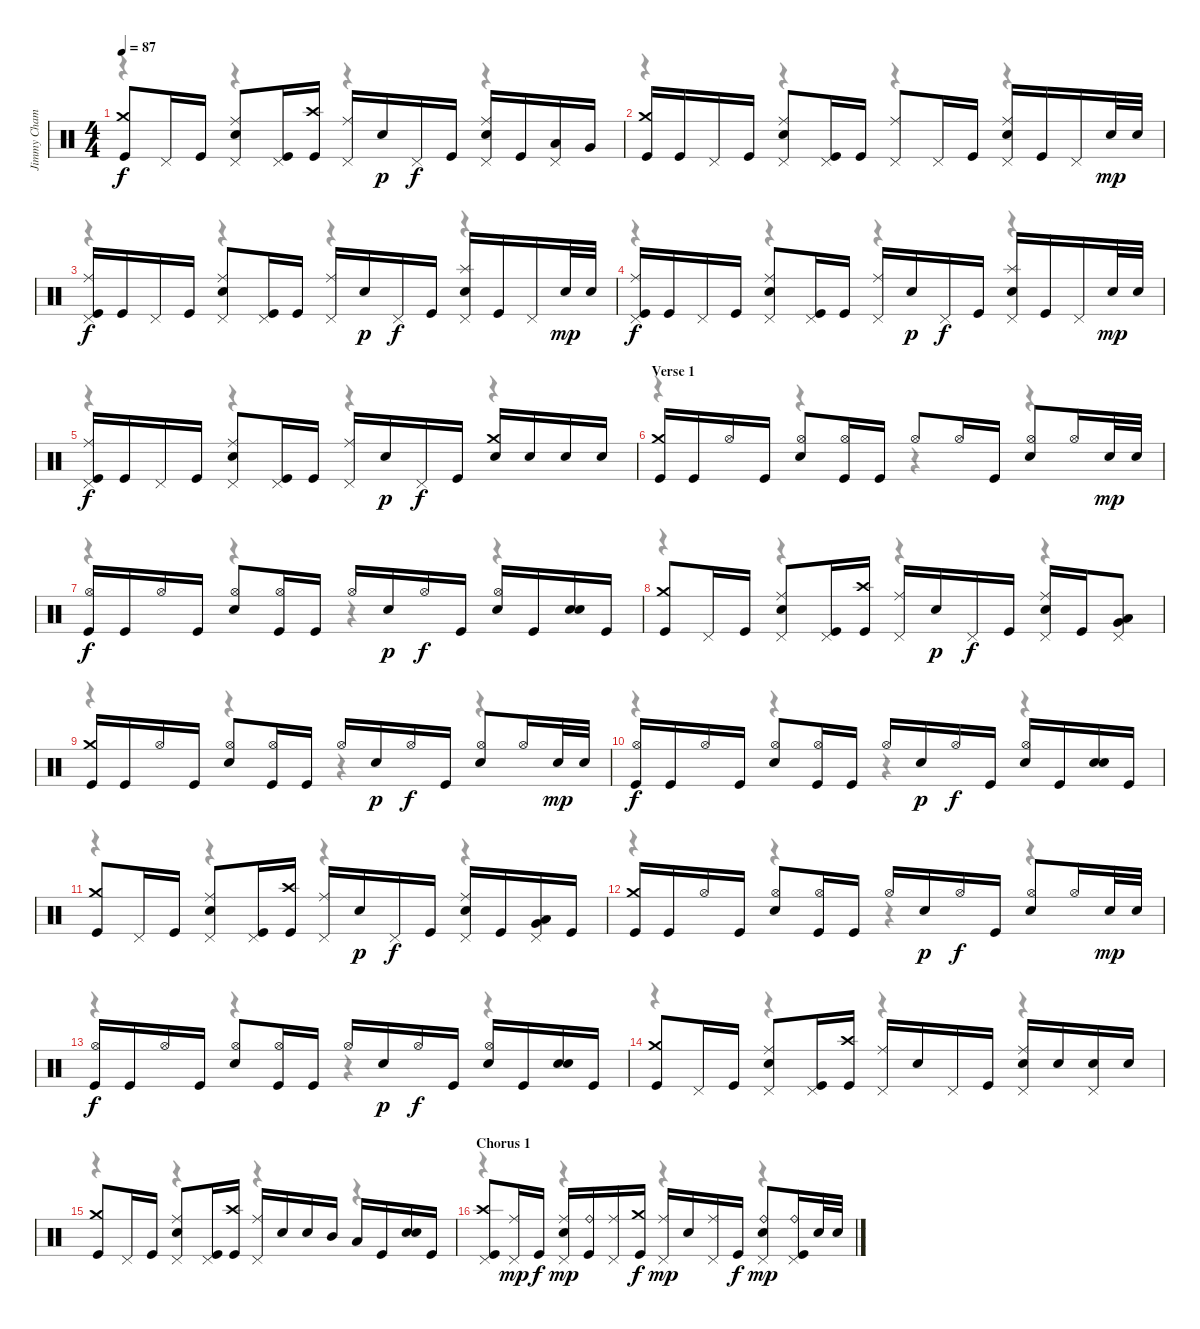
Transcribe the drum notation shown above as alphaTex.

\track ("Jimmy Chamberlin - Drums" "Jimmy Cham") {instrument percussion}
\staff {score}
\articulation defaults
\voice
\ts (4 4)
\tempo 87
\clef neutral
\ks c
("Crash medium (hit)" "Kick (hit)").8{dy f} "Pedal Hi-Hat (hit)".16 "Kick (hit)".16 ("Ride (middle)" "Pedal Hi-Hat (hit)" "Snare (hit) 2").8 ("Pedal Hi-Hat (hit)" "Kick (hit)").16 ("Crash high (hit)" "Kick (hit)").16 ("Ride (middle)" "Pedal Hi-Hat (hit)").16 "Snare (hit) 2".16{dy p} "Pedal Hi-Hat (hit)".16{dy f} "Kick (hit)".16 ("Ride (middle)" "Pedal Hi-Hat (hit)" "Snare (hit) 2").16 "Kick (hit)".16 ("Pedal Hi-Hat (hit)" "Low Tom (hit)").16 "Very Low Tom (hit)".16 |
("Crash medium (hit)" "Kick (hit)").16 "Kick (hit)".16 "Pedal Hi-Hat (hit)".16 "Kick (hit)".16 ("Ride (middle)" "Pedal Hi-Hat (hit)" "Snare (hit) 2").8 ("Pedal Hi-Hat (hit)" "Kick (hit)").16 "Kick (hit)".16 ("Ride (middle)" "Pedal Hi-Hat (hit)").8 "Pedal Hi-Hat (hit)".16 "Kick (hit)".16 ("Ride (middle)" "Pedal Hi-Hat (hit)" "Snare (hit) 2").16 "Kick (hit)".16 "Pedal Hi-Hat (hit)".16 "Snare (hit) 2".32{dy mp} "Snare (hit) 2".32 |
("Ride (middle)" "Pedal Hi-Hat (hit)" "Kick (hit)").16{dy f} "Kick (hit)".16 "Pedal Hi-Hat (hit)".16 "Kick (hit)".16 ("Ride (middle)" "Pedal Hi-Hat (hit)" "Snare (hit) 2").8 ("Pedal Hi-Hat (hit)" "Kick (hit)").16 "Kick (hit)".16 ("Ride (middle)" "Pedal Hi-Hat (hit)").16 "Snare (hit) 2".16{dy p} "Pedal Hi-Hat (hit)".16{dy f} "Kick (hit)".16 ("Splash (hit)" "Pedal Hi-Hat (hit)" "Snare (hit) 2").16 "Kick (hit)".16 "Pedal Hi-Hat (hit)".16 "Snare (hit) 2".32{dy mp} "Snare (hit) 2".32 |
("Ride (middle)" "Pedal Hi-Hat (hit)" "Kick (hit)").16{dy f} "Kick (hit)".16 "Pedal Hi-Hat (hit)".16 "Kick (hit)".16 ("Ride (middle)" "Pedal Hi-Hat (hit)" "Snare (hit) 2").8 ("Pedal Hi-Hat (hit)" "Kick (hit)").16 "Kick (hit)".16 ("Ride (middle)" "Pedal Hi-Hat (hit)").16 "Snare (hit) 2".16{dy p} "Pedal Hi-Hat (hit)".16{dy f} "Kick (hit)".16 ("Splash (hit)" "Pedal Hi-Hat (hit)" "Snare (hit) 2").16 "Kick (hit)".16 "Pedal Hi-Hat (hit)".16 "Snare (hit) 2".32{dy mp} "Snare (hit) 2".32 |
("Ride (middle)" "Pedal Hi-Hat (hit)" "Kick (hit)").16{dy f} "Kick (hit)".16 "Pedal Hi-Hat (hit)".16 "Kick (hit)".16 ("Ride (middle)" "Pedal Hi-Hat (hit)" "Snare (hit) 2").8 ("Pedal Hi-Hat (hit)" "Kick (hit)").16 "Kick (hit)".16 ("Ride (middle)" "Pedal Hi-Hat (hit)").16 "Snare (hit) 2".16{dy p} "Pedal Hi-Hat (hit)".16{dy f} "Kick (hit)".16 ("Crash medium (hit)" "Snare (hit) 2").16 "Snare (hit) 2".16 "Snare (hit) 2".16 "Snare (hit) 2".16 |
\section ("" "Verse 1")
("Crash medium (hit)" "Kick (hit)").16 "Kick (hit)".16 "Hi-Hat (open)".16 "Kick (hit)".16 ("Hi-Hat (open)" "Snare (hit) 2").8 ("Hi-Hat (open)" "Kick (hit)").16 "Kick (hit)".16 "Hi-Hat (open)".8 "Hi-Hat (open)".16 "Kick (hit)".16 ("Hi-Hat (open)" "Snare (hit) 2").8 "Hi-Hat (open)".16 "Snare (hit) 2".32{dy mp} "Snare (hit) 2".32 |
("Hi-Hat (open)" "Kick (hit)").16{dy f} "Kick (hit)".16 "Hi-Hat (open)".16 "Kick (hit)".16 ("Hi-Hat (open)" "Snare (hit) 2").8 ("Hi-Hat (open)" "Kick (hit)").16 "Kick (hit)".16 "Hi-Hat (open)".16 "Snare (hit) 2".16{dy p} "Hi-Hat (open)".16{dy f} "Kick (hit)".16 ("Hi-Hat (open)" "Snare (hit) 2").16 "Kick (hit)".16 ("Snare (hit) 2" "Snare (hit) 2").16 "Kick (hit)".16 |
("Crash medium (hit)" "Kick (hit)").8 "Pedal Hi-Hat (hit)".16 "Kick (hit)".16 ("Ride (middle)" "Pedal Hi-Hat (hit)" "Snare (hit) 2").8 ("Pedal Hi-Hat (hit)" "Kick (hit)").16 ("Crash high (hit)" "Kick (hit)").16 ("Ride (middle)" "Pedal Hi-Hat (hit)").16 "Snare (hit) 2".16{dy p} "Pedal Hi-Hat (hit)".16{dy f} "Kick (hit)".16 ("Ride (middle)" "Pedal Hi-Hat (hit)" "Snare (hit) 2").16 "Kick (hit)".16 ("Pedal Hi-Hat (hit)" "Low Tom (hit)" "Very Low Tom (hit)").8 |
("Crash medium (hit)" "Kick (hit)").16 "Kick (hit)".16 "Hi-Hat (open)".16 "Kick (hit)".16 ("Hi-Hat (open)" "Snare (hit) 2").8 ("Hi-Hat (open)" "Kick (hit)").16 "Kick (hit)".16 "Hi-Hat (open)".16 "Snare (hit) 2".16{dy p} "Hi-Hat (open)".16{dy f} "Kick (hit)".16 ("Hi-Hat (open)" "Snare (hit) 2").8 "Hi-Hat (open)".16 "Snare (hit) 2".32{dy mp} "Snare (hit) 2".32 |
("Hi-Hat (open)" "Kick (hit)").16{dy f} "Kick (hit)".16 "Hi-Hat (open)".16 "Kick (hit)".16 ("Hi-Hat (open)" "Snare (hit) 2").8 ("Hi-Hat (open)" "Kick (hit)").16 "Kick (hit)".16 "Hi-Hat (open)".16 "Snare (hit) 2".16{dy p} "Hi-Hat (open)".16{dy f} "Kick (hit)".16 ("Hi-Hat (open)" "Snare (hit) 2").16 "Kick (hit)".16 ("Snare (hit) 2" "Snare (hit) 2").16 "Kick (hit)".16 |
("Crash medium (hit)" "Kick (hit)").8 "Pedal Hi-Hat (hit)".16 "Kick (hit)".16 ("Ride (middle)" "Pedal Hi-Hat (hit)" "Snare (hit) 2").8 ("Pedal Hi-Hat (hit)" "Kick (hit)").16 ("Crash high (hit)" "Kick (hit)").16 ("Ride (middle)" "Pedal Hi-Hat (hit)").16 "Snare (hit) 2".16{dy p} "Pedal Hi-Hat (hit)".16{dy f} "Kick (hit)".16 ("Ride (middle)" "Pedal Hi-Hat (hit)" "Snare (hit) 2").16 "Kick (hit)".16 ("Pedal Hi-Hat (hit)" "Low Tom (hit)" "Very Low Tom (hit)").16 "Kick (hit)".16 |
("Crash medium (hit)" "Kick (hit)").16 "Kick (hit)".16 "Hi-Hat (open)".16 "Kick (hit)".16 ("Hi-Hat (open)" "Snare (hit) 2").8 ("Hi-Hat (open)" "Kick (hit)").16 "Kick (hit)".16 "Hi-Hat (open)".16 "Snare (hit) 2".16{dy p} "Hi-Hat (open)".16{dy f} "Kick (hit)".16 ("Hi-Hat (open)" "Snare (hit) 2").8 "Hi-Hat (open)".16 "Snare (hit) 2".32{dy mp} "Snare (hit) 2".32 |
("Hi-Hat (open)" "Kick (hit)").16{dy f} "Kick (hit)".16 "Hi-Hat (open)".16 "Kick (hit)".16 ("Hi-Hat (open)" "Snare (hit) 2").8 ("Hi-Hat (open)" "Kick (hit)").16 "Kick (hit)".16 "Hi-Hat (open)".16 "Snare (hit) 2".16{dy p} "Hi-Hat (open)".16{dy f} "Kick (hit)".16 ("Hi-Hat (open)" "Snare (hit) 2").16 "Kick (hit)".16 ("Snare (hit) 2" "Snare (hit) 2").16 "Kick (hit)".16 |
("Crash medium (hit)" "Kick (hit)").8 "Pedal Hi-Hat (hit)".16 "Kick (hit)".16 ("Ride (middle)" "Pedal Hi-Hat (hit)" "Snare (hit) 2").8 ("Pedal Hi-Hat (hit)" "Kick (hit)").16 ("Crash high (hit)" "Kick (hit)").16 ("Ride (middle)" "Pedal Hi-Hat (hit)").16 "Snare (hit) 2".16 "Pedal Hi-Hat (hit)".16 "Kick (hit)".16 ("Ride (middle)" "Pedal Hi-Hat (hit)" "Snare (hit) 2").16 "Snare (hit) 2".16 ("Pedal Hi-Hat (hit)" "Snare (hit) 2").16 "Snare (hit) 2".16 |
("Crash medium (hit)" "Kick (hit)").8 "Pedal Hi-Hat (hit)".16 "Kick (hit)".16 ("Ride (middle)" "Pedal Hi-Hat (hit)" "Snare (hit) 2").8 ("Pedal Hi-Hat (hit)" "Kick (hit)").16 ("Crash high (hit)" "Kick (hit)").16 ("Ride (middle)" "Pedal Hi-Hat (hit)").16 "Snare (hit) 2".16 "Snare (hit) 2".16 "Mid Tom (hit)".16 "Low Tom (hit)".16 "Kick (hit)".16 ("Snare (hit) 2" "Snare (hit) 2").16 "Kick (hit)".16 |
\section ("" "Chorus 1")
("Crash high (hit)" "Pedal Hi-Hat (hit)" "Kick (hit)").8 ("Ride (middle)" "Pedal Hi-Hat (hit)").16{dy mp} "Kick (hit)".16{dy f} ("Ride (middle)" "Pedal Hi-Hat (hit)" "Snare (hit) 2").16{dy mp} ("Ride (bell)" "Kick (hit)").16 ("Ride (middle)" "Pedal Hi-Hat (hit)").16 ("Crash medium (hit)" "Kick (hit)").16{dy f} ("Ride (middle)" "Pedal Hi-Hat (hit)").16{dy mp} "Snare (hit) 2".16 ("Ride (middle)" "Pedal Hi-Hat (hit)").16 "Kick (hit)".16{dy f} ("Ride (bell)" "Pedal Hi-Hat (hit)" "Snare (hit) 2").8{dy mp} ("Ride (bell)" "Pedal Hi-Hat (hit)" "Kick (hit)").16 "Snare (hit) 2".32 "Snare (hit) 2".32
\voice
\clef neutral
\ottava regular
\simile none
\ks c
r.4{dy f} r.4 r.4 r.4 |
r.4 r.4 r.4 r.4 |
r.4 r.4 r.4 r.4 |
r.4 r.4 r.4 r.4 |
r.4 r.4 r.4 r.4 |
r.4 r.4 r.4 r.4 |
r.4 r.4 r.4 r.4 |
r.4 r.4 r.4 r.4 |
r.4 r.4 r.4 r.4 |
r.4 r.4 r.4 r.4 |
r.4 r.4 r.4 r.4 |
r.4 r.4 r.4 r.4 |
r.4 r.4 r.4 r.4 |
r.4 r.4 r.4 r.4 |
r.4 r.4 r.4 r.4 |
r.4 r.4 r.4 r.4
